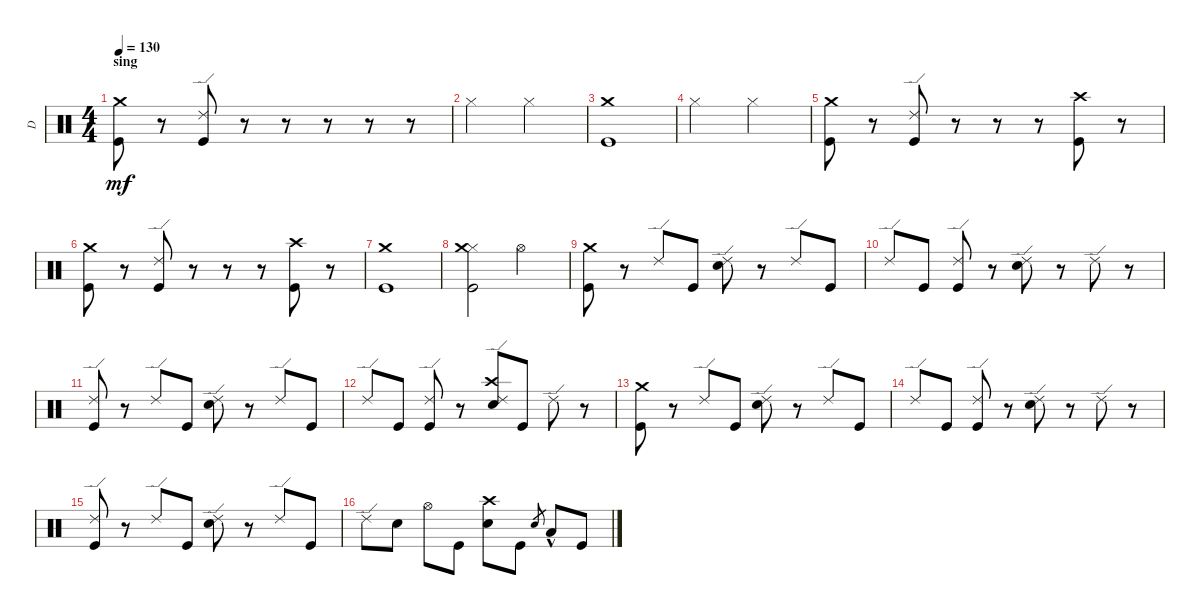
\track ("D" "D") {instrument percussion}
\staff {score}
\articulation defaults
\ts (4 4)
\section ("" "sing")
\tempo 130
\clef neutral
\ks c
("Kick (hit)" "Crash medium (hit)").8{dy mf} r.8 ("Kick (hit)" "Ride (edge) 2").8 r.8 r.8 r.8 r.8 r.8 |
"Hi-Hat (closed)".2 "Hi-Hat (closed)".2 |
("Kick (hit)" "Crash medium (hit)").1 |
"Hi-Hat (closed)".2 "Hi-Hat (closed)".2 |
("Kick (hit)" "Crash medium (hit)").8 r.8 ("Kick (hit)" "Ride (edge) 2").8 r.8 r.8 r.8 ("Kick (hit)" "Crash high (hit)").8 r.8 |
("Kick (hit)" "Crash medium (hit)").8 r.8 ("Kick (hit)" "Ride (edge) 2").8 r.8 r.8 r.8 ("Kick (hit)" "Crash high (hit)").8 r.8 |
("Crash medium (hit)" "Kick (hit)").1 |
("Hi-Hat (closed)" "Kick (hit)" "Crash medium (hit)").2 "Hi-Hat (open)".2 |
("Kick (hit)" "Crash medium (hit)").8 r.8 "Ride (edge) 2".8 "Kick (hit)".8 ("Ride (edge) 2" "Snare (hit) 2").8 r.8 "Ride (edge) 2".8 "Kick (hit)".8 |
"Ride (edge) 2".8 "Kick (hit)".8 ("Ride (edge) 2" "Kick (hit)").8 r.8 ("Ride (edge) 2" "Snare (hit) 2").8 r.8 "Ride (edge) 2".8 r.8 |
("Ride (edge) 2" "Kick (hit)").8 r.8 "Ride (edge) 2".8 "Kick (hit)".8 ("Ride (edge) 2" "Snare (hit) 2").8 r.8 "Ride (edge) 2".8 "Kick (hit)".8 |
"Ride (edge) 2".8 "Kick (hit)".8 ("Ride (edge) 2" "Kick (hit)").8 r.8 ("Ride (edge) 2" "Snare (hit) 2" "Crash high (hit)").8 "Kick (hit)".8 "Ride (edge) 2".8 r.8 |
("Kick (hit)" "Crash medium (hit)").8 r.8 "Ride (edge) 2".8 "Kick (hit)".8 ("Ride (edge) 2" "Snare (hit) 2").8 r.8 "Ride (edge) 2".8 "Kick (hit)".8 |
"Ride (edge) 2".8 "Kick (hit)".8 ("Ride (edge) 2" "Kick (hit)").8 r.8 ("Ride (edge) 2" "Snare (hit) 2").8 r.8 "Ride (edge) 2".8 r.8 |
("Ride (edge) 2" "Kick (hit)").8 r.8 "Ride (edge) 2".8 "Kick (hit)".8 ("Ride (edge) 2" "Snare (hit) 2").8 r.8 "Ride (edge) 2".8 "Kick (hit)".8 |
"Ride (edge) 2".8 "Snare (hit) 2".8 "Hi-Hat (open)".8 "Kick (hit)".8 ("Snare (hit) 2" "Crash high (hit)").8 "Kick (hit)".8 "Snare (hit)".8{gr} "Low Floor Tom (hit)"{hac}.8 "Kick (hit)".8
